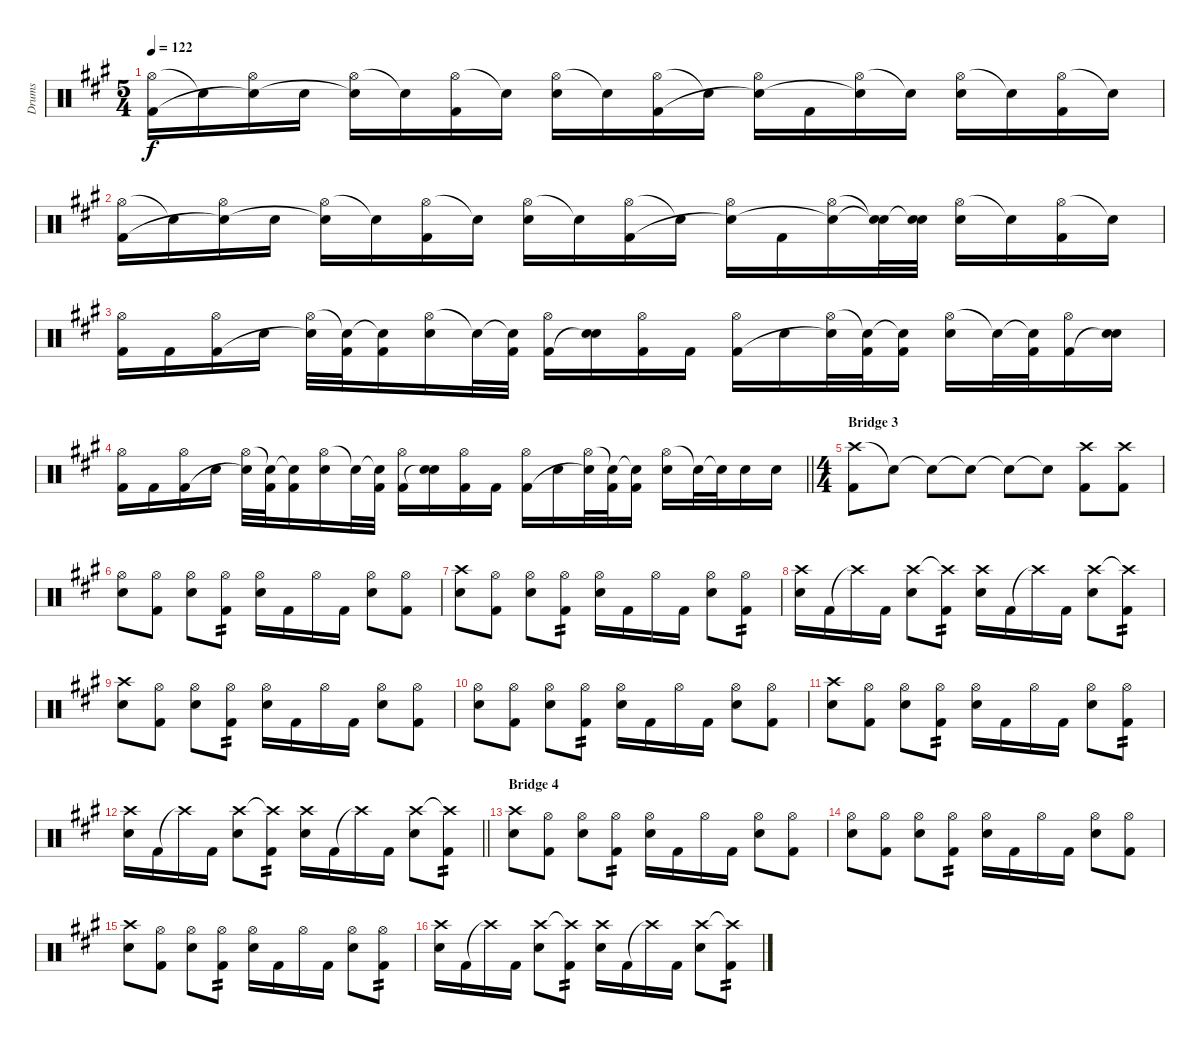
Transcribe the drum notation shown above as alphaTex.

\track ("Drums" "Drums") {instrument percussion}
\staff {score}
\articulation defaults
\ts (5 4)
\tempo 122
\clef neutral
\ks f#minor
("Hi-Hat (open)" "Kick (hit) 2").16{dy f} "Snare (hit)"{t}.16 ("Hi-Hat (open)" "Snare (hit)"{t}).16 "Snare (hit) 2".16 ("Hi-Hat (open)" "Snare (hit)"{t}).16 "Snare (hit)"{t}.16 ("Hi-Hat (open)" "Kick (hit) 2").16 "Snare (hit)"{t}.16 ("Hi-Hat (open)" "Snare (hit) 2").16 "Snare (hit)"{t}.16 ("Hi-Hat (open)" "Kick (hit) 2").16 "Snare (hit)"{t}.16 ("Hi-Hat (open)" "Snare (hit)"{t}).16 "Kick (hit) 2".16 ("Hi-Hat (open)" "Snare (hit)"{t}).16 "Snare (hit)"{t}.16 ("Hi-Hat (open)" "Snare (hit) 2").16 "Snare (hit)"{t}.16 ("Hi-Hat (open)" "Kick (hit) 2").16 "Snare (hit)"{t}.16 |
("Hi-Hat (open)" "Kick (hit) 2").16 "Snare (hit)"{t}.16 ("Hi-Hat (open)" "Snare (hit)"{t}).16 "Snare (hit) 2".16 ("Hi-Hat (open)" "Snare (hit)"{t}).16 "Snare (hit)"{t}.16 ("Hi-Hat (open)" "Kick (hit) 2").16 "Snare (hit)"{t}.16 ("Hi-Hat (open)" "Snare (hit) 2").16 "Snare (hit)"{t}.16 ("Hi-Hat (open)" "Kick (hit) 2").16 "Snare (hit)"{t}.16 ("Hi-Hat (open)" "Snare (hit)"{t}).16 "Kick (hit) 2".16 ("Hi-Hat (open)" "Snare (hit)"{t}).16 ("Snare (hit)"{t} "Snare (hit)"{t}).32 ("Snare (hit)"{t} "Snare (hit) 2").32 ("Hi-Hat (open)" "Snare (hit) 2").16 "Snare (hit)"{t}.16 ("Hi-Hat (open)" "Kick (hit) 2").16 "Snare (hit)"{t}.16 |
("Hi-Hat (open)" "Kick (hit) 2").16 "Kick (hit) 2".16 ("Hi-Hat (open)" "Kick (hit) 2").16 "Snare (hit) 2".16 ("Hi-Hat (open)" "Snare (hit)"{t}).32 ("Snare (hit)"{t} "Kick (hit) 2").32 ("Snare (hit)"{t} "Kick (hit) 2").16 ("Hi-Hat (open)" "Snare (hit) 2").16 "Snare (hit)"{t}.32 ("Snare (hit)"{t} "Kick (hit) 2").32 ("Hi-Hat (open)" "Kick (hit) 2").16 ("Snare (hit) 2" "Snare (hit)"{t}).16 ("Hi-Hat (open)" "Kick (hit) 2").16 "Kick (hit) 2".16 ("Hi-Hat (open)" "Kick (hit) 2").16 "Snare (hit) 2".16 ("Hi-Hat (open)" "Snare (hit)"{t}).32 ("Snare (hit)"{t} "Kick (hit) 2").32 ("Snare (hit)"{t} "Kick (hit) 2").16 ("Hi-Hat (open)" "Snare (hit) 2").16 "Snare (hit)"{t}.32 ("Snare (hit)"{t} "Kick (hit) 2").32 ("Hi-Hat (open)" "Kick (hit) 2").16 ("Snare (hit) 2" "Snare (hit)"{t}).16 |
\barLineRight lightlight
("Hi-Hat (open)" "Kick (hit) 2").16 "Kick (hit) 2".16 ("Hi-Hat (open)" "Kick (hit) 2").16 "Snare (hit) 2".16 ("Hi-Hat (open)" "Snare (hit)"{t}).32 ("Snare (hit)"{t} "Kick (hit) 2").32 ("Snare (hit)"{t} "Kick (hit) 2").16 ("Hi-Hat (open)" "Snare (hit) 2").16 "Snare (hit)"{t}.32 ("Snare (hit)"{t} "Kick (hit) 2").32 ("Hi-Hat (open)" "Kick (hit) 2").16 ("Snare (hit) 2" "Snare (hit)"{t}).16 ("Hi-Hat (open)" "Kick (hit) 2").16 "Kick (hit) 2".16 ("Hi-Hat (open)" "Kick (hit) 2").16 "Snare (hit) 2".16 ("Hi-Hat (open)" "Snare (hit)"{t}).32 ("Snare (hit)"{t} "Kick (hit) 2").32 ("Snare (hit)"{t} "Kick (hit) 2").16 ("Hi-Hat (open)" "Snare (hit) 2").16 "Snare (hit)"{t}.32 "Snare (hit)"{t}.32 "Snare (hit) 2".16 "Snare (hit) 2".16 |
\ts (4 4)
\section ("" "Bridge 3")
("Crash high (hit)" "Kick (hit) 2").8 "Snare (hit)"{t}.8 "Snare (hit)"{t}.8 "Snare (hit)"{t}.8 "Snare (hit)"{t}.8 "Snare (hit)"{t}.8 ("Crash high (hit)" "Kick (hit) 2").8 ("Crash high (hit)" "Kick (hit) 2").8 |
("Hi-Hat (open)" "Snare (hit) 2").8 ("Hi-Hat (open)" "Kick (hit) 2").8 ("Hi-Hat (open)" "Snare (hit) 2").8 ("Hi-Hat (open)" "Kick (hit) 2").8{tp 2} ("Hi-Hat (open)" "Snare (hit) 2").16 "Kick (hit) 2".16 "Hi-Hat (open)".16 "Kick (hit) 2".16 ("Hi-Hat (open)" "Snare (hit) 2").8 ("Hi-Hat (open)" "Kick (hit) 2").8 |
("Crash high (hit)" "Snare (hit) 2").8 ("Hi-Hat (open)" "Kick (hit) 2").8 ("Hi-Hat (open)" "Snare (hit) 2").8 ("Hi-Hat (open)" "Kick (hit) 2").8{tp 2} ("Hi-Hat (open)" "Snare (hit) 2").16 "Kick (hit) 2".16 "Hi-Hat (open)".16 "Kick (hit) 2".16 ("Hi-Hat (open)" "Snare (hit) 2").8 ("Hi-Hat (open)" "Kick (hit) 2").8{tp 2} |
("Crash high (hit)" "Snare (hit) 2").16 "Kick (hit) 2".16 "Crash high (hit)"{t}.16 "Kick (hit) 2".16 ("Crash high (hit)" "Snare (hit) 2").8 ("Crash high (hit)"{t} "Kick (hit) 2").8{tp 2} ("Crash high (hit)" "Snare (hit) 2").16 "Kick (hit) 2".16 "Crash high (hit)"{t}.16 "Kick (hit) 2".16 ("Crash high (hit)" "Snare (hit) 2").8 ("Crash high (hit)"{t} "Kick (hit) 2").8{tp 2} |
("Crash high (hit)" "Snare (hit) 2").8 ("Hi-Hat (open)" "Kick (hit) 2").8 ("Hi-Hat (open)" "Snare (hit) 2").8 ("Hi-Hat (open)" "Kick (hit) 2").8{tp 2} ("Hi-Hat (open)" "Snare (hit) 2").16 "Kick (hit) 2".16 "Hi-Hat (open)".16 "Kick (hit) 2".16 ("Hi-Hat (open)" "Snare (hit) 2").8 ("Hi-Hat (open)" "Kick (hit) 2").8 |
("Hi-Hat (open)" "Snare (hit) 2").8 ("Hi-Hat (open)" "Kick (hit) 2").8 ("Hi-Hat (open)" "Snare (hit) 2").8 ("Hi-Hat (open)" "Kick (hit) 2").8{tp 2} ("Hi-Hat (open)" "Snare (hit) 2").16 "Kick (hit) 2".16 "Hi-Hat (open)".16 "Kick (hit) 2".16 ("Hi-Hat (open)" "Snare (hit) 2").8 ("Hi-Hat (open)" "Kick (hit) 2").8 |
("Crash high (hit)" "Snare (hit) 2").8 ("Hi-Hat (open)" "Kick (hit) 2").8 ("Hi-Hat (open)" "Snare (hit) 2").8 ("Hi-Hat (open)" "Kick (hit) 2").8{tp 2} ("Hi-Hat (open)" "Snare (hit) 2").16 "Kick (hit) 2".16 "Hi-Hat (open)".16 "Kick (hit) 2".16 ("Hi-Hat (open)" "Snare (hit) 2").8 ("Hi-Hat (open)" "Kick (hit) 2").8{tp 2} |
\barLineRight lightlight
("Crash high (hit)" "Snare (hit) 2").16 "Kick (hit) 2".16 "Crash high (hit)"{t}.16 "Kick (hit) 2".16 ("Crash high (hit)" "Snare (hit) 2").8 ("Crash high (hit)"{t} "Kick (hit) 2").8{tp 2} ("Crash high (hit)" "Snare (hit) 2").16 "Kick (hit) 2".16 "Crash high (hit)"{t}.16 "Kick (hit) 2".16 ("Crash high (hit)" "Snare (hit) 2").8 ("Crash high (hit)"{t} "Kick (hit) 2").8{tp 2} |
\section ("" "Bridge 4")
("Crash high (hit)" "Snare (hit) 2").8 ("Hi-Hat (open)" "Kick (hit) 2").8 ("Hi-Hat (open)" "Snare (hit) 2").8 ("Hi-Hat (open)" "Kick (hit) 2").8{tp 2} ("Hi-Hat (open)" "Snare (hit) 2").16 "Kick (hit) 2".16 "Hi-Hat (open)".16 "Kick (hit) 2".16 ("Hi-Hat (open)" "Snare (hit) 2").8 ("Hi-Hat (open)" "Kick (hit) 2").8 |
("Hi-Hat (open)" "Snare (hit) 2").8 ("Hi-Hat (open)" "Kick (hit) 2").8 ("Hi-Hat (open)" "Snare (hit) 2").8 ("Hi-Hat (open)" "Kick (hit) 2").8{tp 2} ("Hi-Hat (open)" "Snare (hit) 2").16 "Kick (hit) 2".16 "Hi-Hat (open)".16 "Kick (hit) 2".16 ("Hi-Hat (open)" "Snare (hit) 2").8 ("Hi-Hat (open)" "Kick (hit) 2").8 |
("Crash high (hit)" "Snare (hit) 2").8 ("Hi-Hat (open)" "Kick (hit) 2").8 ("Hi-Hat (open)" "Snare (hit) 2").8 ("Hi-Hat (open)" "Kick (hit) 2").8{tp 2} ("Hi-Hat (open)" "Snare (hit) 2").16 "Kick (hit) 2".16 "Hi-Hat (open)".16 "Kick (hit) 2".16 ("Hi-Hat (open)" "Snare (hit) 2").8 ("Hi-Hat (open)" "Kick (hit) 2").8{tp 2} |
("Crash high (hit)" "Snare (hit) 2").16 "Kick (hit) 2".16 "Crash high (hit)"{t}.16 "Kick (hit) 2".16 ("Crash high (hit)" "Snare (hit) 2").8 ("Crash high (hit)"{t} "Kick (hit) 2").8{tp 2} ("Crash high (hit)" "Snare (hit) 2").16 "Kick (hit) 2".16 "Crash high (hit)"{t}.16 "Kick (hit) 2".16 ("Crash high (hit)" "Snare (hit) 2").8 ("Crash high (hit)"{t} "Kick (hit) 2").8{tp 2}
